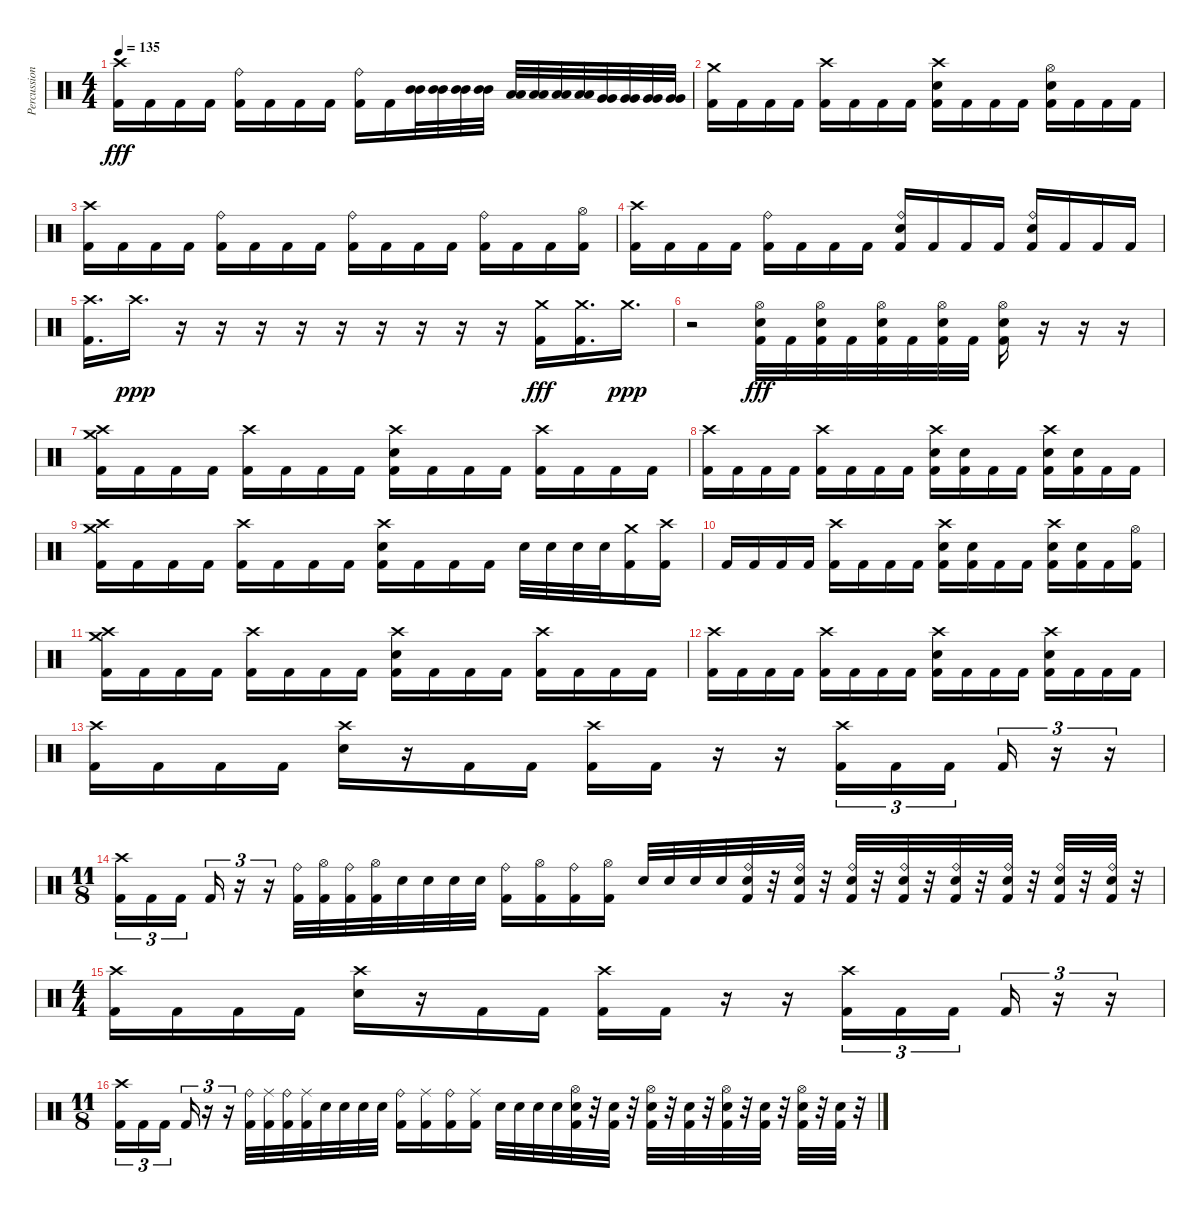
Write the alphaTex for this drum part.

\track ("Percussion" "Percussion") {instrument percussion bank 16}
\staff {score}
\articulation defaults
\ts (4 4)
\tempo 135
\clef neutral
\ks c
("Crash high (hit)" "Kick (hit) 2").16{dy fff} "Kick (hit) 2".16 "Kick (hit) 2".16 "Kick (hit) 2".16 ("Ride (bell)" "Kick (hit) 2").16 "Kick (hit) 2".16 "Kick (hit) 2".16 "Kick (hit) 2".16 ("Ride (bell)" "Kick (hit) 2").16 "Kick (hit) 2".16 ("Mid Tom (hit)" "Mid Tom (hit)").32 ("Mid Tom (hit)" "Mid Tom (hit)").32 ("Mid Tom (hit)" "Mid Tom (hit)").32 ("Mid Tom (hit)" "Mid Tom (hit)").32 ("Low Tom (hit)" "Low Tom (hit)").32 ("Low Tom (hit)" "Low Tom (hit)").32 ("Low Tom (hit)" "Low Tom (hit)").32 ("Low Tom (hit)" "Low Tom (hit)").32 ("Very Low Tom (hit)" "Very Low Tom (hit)").32 ("Very Low Tom (hit)" "Very Low Tom (hit)").32 ("Very Low Tom (hit)" "Very Low Tom (hit)").32 ("Very Low Tom (hit)" "Very Low Tom (hit)").32 |
("Crash medium (hit)" "Kick (hit) 2").16 "Kick (hit) 2".16 "Kick (hit) 2".16 "Kick (hit) 2".16 ("Crash high (hit)" "Kick (hit) 2").16 "Kick (hit) 2".16 "Kick (hit) 2".16 "Kick (hit) 2".16 ("Crash high (hit)" "Electric Snare (hit)" "Kick (hit) 2").16 "Kick (hit) 2".16 "Kick (hit) 2".16 "Kick (hit) 2".16 ("Hi-Hat (open)" "Electric Snare (hit)" "Kick (hit) 2").16 "Kick (hit) 2".16 "Kick (hit) 2".16 "Kick (hit) 2".16 |
("Crash high (hit)" "Kick (hit) 2").16 "Kick (hit) 2".16 "Kick (hit) 2".16 "Kick (hit) 2".16 ("Ride (bell)" "Kick (hit) 2").16 "Kick (hit) 2".16 "Kick (hit) 2".16 "Kick (hit) 2".16 ("Ride (bell)" "Kick (hit) 2").16 "Kick (hit) 2".16 "Kick (hit) 2".16 "Kick (hit) 2".16 ("Ride (bell)" "Kick (hit) 2").16 "Kick (hit) 2".16 "Kick (hit) 2".16 ("Hi-Hat (open)" "Kick (hit) 2").16 |
("Crash high (hit)" "Kick (hit) 2").16 "Kick (hit) 2".16 "Kick (hit) 2".16 "Kick (hit) 2".16 ("Ride (bell)" "Kick (hit) 2").16 "Kick (hit) 2".16 "Kick (hit) 2".16 "Kick (hit) 2".16 ("Ride (bell)" "Electric Snare (hit)" "Kick (hit) 2").16 "Kick (hit) 2".16 "Kick (hit) 2".16 "Kick (hit) 2".16 ("Ride (bell)" "Electric Snare (hit)" "Kick (hit) 2").16 "Kick (hit) 2".16 "Kick (hit) 2".16 "Kick (hit) 2".16 |
("Crash high (hit)" "Kick (hit) 2").16{d} "Crash high (hit)".16{d dy ppp} r.16 r.16 r.16 r.16 r.16 r.16 r.16 r.16 r.16 ("Crash medium (hit)" "Kick (hit) 2").16{dy fff} ("Crash medium (hit)" "Kick (hit) 2").16{d} "Crash medium (hit)".16{d dy ppp} |
r.2 ("Hi-Hat (open)" "Electric Snare (hit)" "Kick (hit) 2").32{dy fff} "Kick (hit) 2".32 ("Hi-Hat (open)" "Electric Snare (hit)" "Kick (hit) 2").32 "Kick (hit) 2".32 ("Hi-Hat (open)" "Electric Snare (hit)" "Kick (hit) 2").32 "Kick (hit) 2".32 ("Hi-Hat (open)" "Electric Snare (hit)" "Kick (hit) 2").32 "Kick (hit) 2".32 ("Hi-Hat (open)" "Electric Snare (hit)" "Kick (hit) 2").16 r.16 r.16 r.16 |
("Crash high (hit)" "Crash medium (hit)" "Kick (hit) 2").16 "Kick (hit) 2".16 "Kick (hit) 2".16 "Kick (hit) 2".16 ("Crash high (hit)" "Kick (hit) 2").16 "Kick (hit) 2".16 "Kick (hit) 2".16 "Kick (hit) 2".16 ("Crash high (hit)" "Electric Snare (hit)" "Kick (hit) 2").16 "Kick (hit) 2".16 "Kick (hit) 2".16 "Kick (hit) 2".16 ("Crash high (hit)" "Kick (hit) 2").16 "Kick (hit) 2".16 "Kick (hit) 2".16 "Kick (hit) 2".16 |
("Crash high (hit)" "Kick (hit) 2").16 "Kick (hit) 2".16 "Kick (hit) 2".16 "Kick (hit) 2".16 ("Crash high (hit)" "Kick (hit) 2").16 "Kick (hit) 2".16 "Kick (hit) 2".16 "Kick (hit) 2".16 ("Crash high (hit)" "Electric Snare (hit)" "Kick (hit) 2").16 ("Electric Snare (hit)" "Kick (hit) 2").16 "Kick (hit) 2".16 "Kick (hit) 2".16 ("Crash high (hit)" "Electric Snare (hit)" "Kick (hit) 2").16 ("Electric Snare (hit)" "Kick (hit) 2").16 "Kick (hit) 2".16 "Kick (hit) 2".16 |
("Crash high (hit)" "Crash medium (hit)" "Kick (hit) 2").16 "Kick (hit) 2".16 "Kick (hit) 2".16 "Kick (hit) 2".16 ("Crash high (hit)" "Kick (hit) 2").16 "Kick (hit) 2".16 "Kick (hit) 2".16 "Kick (hit) 2".16 ("Crash high (hit)" "Electric Snare (hit)" "Kick (hit) 2").16 "Kick (hit) 2".16 "Kick (hit) 2".16 "Kick (hit) 2".16 "Electric Snare (hit)".32 "Electric Snare (hit)".32 "Electric Snare (hit)".32 "Electric Snare (hit)".32 ("Crash medium (hit)" "Kick (hit) 2").16 ("Crash high (hit)" "Kick (hit) 2").16 |
"Kick (hit) 2".16 "Kick (hit) 2".16 "Kick (hit) 2".16 "Kick (hit) 2".16 ("Crash high (hit)" "Kick (hit) 2").16 "Kick (hit) 2".16 "Kick (hit) 2".16 "Kick (hit) 2".16 ("Crash high (hit)" "Electric Snare (hit)" "Kick (hit) 2").16 ("Electric Snare (hit)" "Kick (hit) 2").16 "Kick (hit) 2".16 "Kick (hit) 2".16 ("Crash high (hit)" "Electric Snare (hit)" "Kick (hit) 2").16 ("Electric Snare (hit)" "Kick (hit) 2").16 "Kick (hit) 2".16 ("Hi-Hat (open)" "Kick (hit) 2").16 |
("Crash high (hit)" "Crash medium (hit)" "Kick (hit) 2").16 "Kick (hit) 2".16 "Kick (hit) 2".16 "Kick (hit) 2".16 ("Crash high (hit)" "Kick (hit) 2").16 "Kick (hit) 2".16 "Kick (hit) 2".16 "Kick (hit) 2".16 ("Crash high (hit)" "Electric Snare (hit)" "Kick (hit) 2").16 "Kick (hit) 2".16 "Kick (hit) 2".16 "Kick (hit) 2".16 ("Crash high (hit)" "Kick (hit) 2").16 "Kick (hit) 2".16 "Kick (hit) 2".16 "Kick (hit) 2".16 |
("Crash high (hit)" "Kick (hit) 2").16 "Kick (hit) 2".16 "Kick (hit) 2".16 "Kick (hit) 2".16 ("Crash high (hit)" "Kick (hit) 2").16 "Kick (hit) 2".16 "Kick (hit) 2".16 "Kick (hit) 2".16 ("Crash high (hit)" "Electric Snare (hit)" "Kick (hit) 2").16 "Kick (hit) 2".16 "Kick (hit) 2".16 "Kick (hit) 2".16 ("Crash high (hit)" "Electric Snare (hit)" "Kick (hit) 2").16 "Kick (hit) 2".16 "Kick (hit) 2".16 "Kick (hit) 2".16 |
("Crash high (hit)" "Kick (hit) 2").16 "Kick (hit) 2".16 "Kick (hit) 2".16 "Kick (hit) 2".16 ("Crash high (hit)" "Electric Snare (hit)").16 r.16 "Kick (hit) 2".16 "Kick (hit) 2".16 ("Crash high (hit)" "Kick (hit) 2").16 "Kick (hit) 2".16 r.16 r.16 ("Crash high (hit)" "Kick (hit) 2").16{tu (3 2)} "Kick (hit) 2".16{tu (3 2)} "Kick (hit) 2".16{tu (3 2) beam splitsecondary} "Kick (hit) 2".16{tu (3 2)} r.16{tu (3 2)} r.16{tu (3 2)} |
\ts (11 8)
("Crash high (hit)" "Kick (hit) 2").16{tu (3 2)} "Kick (hit) 2".16{tu (3 2)} "Kick (hit) 2".16{tu (3 2)} "Kick (hit) 2".16{tu (3 2)} r.16{tu (3 2)} r.16{tu (3 2)} ("Ride (bell)" "Kick (hit) 2").32 ("Hi-Hat (open)" "Kick (hit) 2").32 ("Ride (bell)" "Kick (hit) 2").32 ("Hi-Hat (open)" "Kick (hit) 2").32 "Electric Snare (hit)".32 "Electric Snare (hit)".32 "Electric Snare (hit)".32 "Electric Snare (hit)".32 ("Ride (bell)" "Kick (hit) 2").16 ("Hi-Hat (open)" "Kick (hit) 2").16 ("Ride (bell)" "Kick (hit) 2").16 ("Hi-Hat (open)" "Kick (hit) 2").16 "Electric Snare (hit)".32 "Electric Snare (hit)".32 "Electric Snare (hit)".32 "Electric Snare (hit)".32 ("Ride (bell)" "Electric Snare (hit)" "Kick (hit) 2").32 r.32 ("Ride (bell)" "Electric Snare (hit)" "Kick (hit) 2").32 r.32 ("Ride (bell)" "Electric Snare (hit)" "Kick (hit) 2").32 r.32 ("Ride (bell)" "Electric Snare (hit)" "Kick (hit) 2").32 r.32 ("Ride (bell)" "Electric Snare (hit)" "Kick (hit) 2").32 r.32 ("Ride (bell)" "Electric Snare (hit)" "Kick (hit) 2").32 r.32 ("Ride (bell)" "Electric Snare (hit)" "Kick (hit) 2").32 r.32 ("Ride (bell)" "Electric Snare (hit)" "Kick (hit) 2").32 r.32 |
\ts (4 4)
("Crash high (hit)" "Kick (hit) 2").16 "Kick (hit) 2".16 "Kick (hit) 2".16 "Kick (hit) 2".16 ("Crash high (hit)" "Electric Snare (hit)").16 r.16 "Kick (hit) 2".16 "Kick (hit) 2".16 ("Crash high (hit)" "Kick (hit) 2").16 "Kick (hit) 2".16 r.16 r.16 ("Crash high (hit)" "Kick (hit) 2").16{tu (3 2)} "Kick (hit) 2".16{tu (3 2)} "Kick (hit) 2".16{tu (3 2) beam splitsecondary} "Kick (hit) 2".16{tu (3 2)} r.16{tu (3 2)} r.16{tu (3 2)} |
\ts (11 8)
("Crash high (hit)" "Kick (hit) 2").16{tu (3 2)} "Kick (hit) 2".16{tu (3 2)} "Kick (hit) 2".16{tu (3 2)} "Kick (hit) 2".16{tu (3 2)} r.16{tu (3 2)} r.16{tu (3 2)} ("Ride (bell)" "Kick (hit) 2").32 ("Ride (middle)" "Kick (hit) 2").32 ("Ride (bell)" "Kick (hit) 2").32 ("Ride (middle)" "Kick (hit) 2").32 "Electric Snare (hit)".32 "Electric Snare (hit)".32 "Electric Snare (hit)".32 "Electric Snare (hit)".32 ("Ride (bell)" "Kick (hit) 2").16 ("Ride (middle)" "Kick (hit) 2").16 ("Ride (bell)" "Kick (hit) 2").16 ("Ride (middle)" "Kick (hit) 2").16 "Electric Snare (hit)".32 "Electric Snare (hit)".32 "Electric Snare (hit)".32 "Electric Snare (hit)".32 ("Hi-Hat (open)" "Electric Snare (hit)" "Kick (hit) 2").32 r.32 ("Electric Snare (hit)" "Kick (hit) 2").32 r.32 ("Hi-Hat (open)" "Electric Snare (hit)" "Kick (hit) 2").32 r.32 ("Electric Snare (hit)" "Kick (hit) 2").32 r.32 ("Hi-Hat (open)" "Electric Snare (hit)" "Kick (hit) 2").32 r.32 ("Electric Snare (hit)" "Kick (hit) 2").32 r.32 ("Hi-Hat (open)" "Electric Snare (hit)" "Kick (hit) 2").32 r.32 ("Electric Snare (hit)" "Kick (hit) 2").32 r.32
